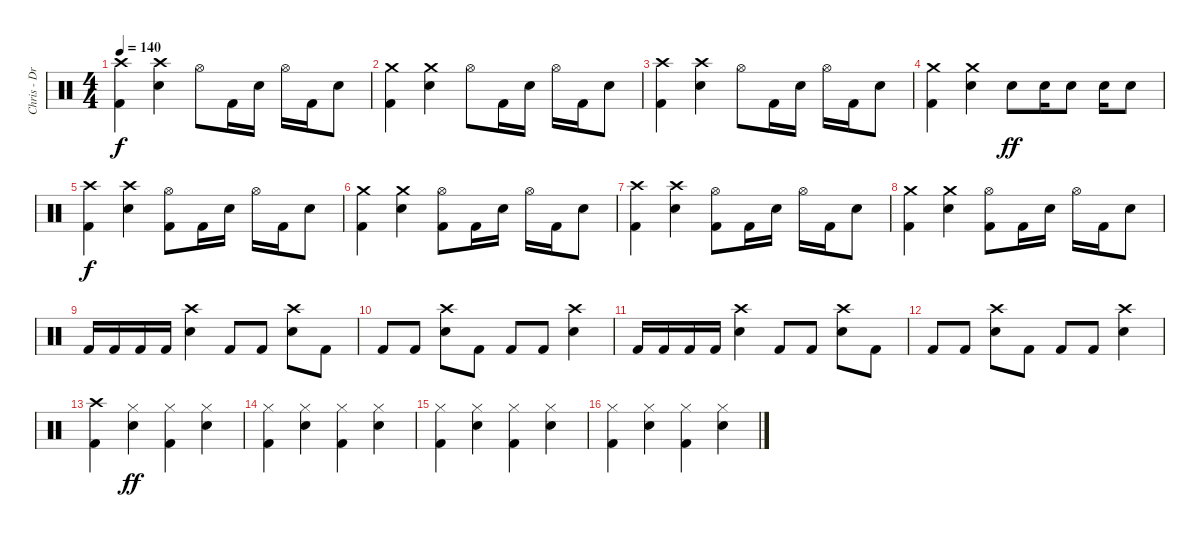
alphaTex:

\track ("Chris - Drums" "Chris - Dr") {instrument percussion}
\staff {score}
\articulation defaults
\ts (4 4)
\tempo 140
\clef neutral
\ks c
("Crash high (hit)" "Kick (hit) 2").4{dy f} ("Crash high (hit)" "Electric Snare (hit)").4 "Hi-Hat (open)".8 "Kick (hit) 2".16 "Electric Snare (hit)".16 "Hi-Hat (open)".16 "Kick (hit) 2".16 "Electric Snare (hit)".8 |
("Crash medium (hit)" "Kick (hit) 2").4 ("Crash medium (hit)" "Electric Snare (hit)").4 "Hi-Hat (open)".8 "Kick (hit) 2".16 "Electric Snare (hit)".16 "Hi-Hat (open)".16 "Kick (hit) 2".16 "Electric Snare (hit)".8 |
("Crash high (hit)" "Kick (hit) 2").4 ("Crash high (hit)" "Electric Snare (hit)").4 "Hi-Hat (open)".8 "Kick (hit) 2".16 "Electric Snare (hit)".16 "Hi-Hat (open)".16 "Kick (hit) 2".16 "Electric Snare (hit)".8 |
("Crash medium (hit)" "Kick (hit) 2").4 ("Crash medium (hit)" "Electric Snare (hit)").4 "Electric Snare (hit)".8{dy ff} "Electric Snare (hit)".16 "Electric Snare (hit)".8 "Electric Snare (hit)".16 "Electric Snare (hit)".8 |
("Crash high (hit)" "Kick (hit) 2").4{dy f} ("Crash high (hit)" "Electric Snare (hit)").4 ("Hi-Hat (open)" "Kick (hit) 2").8 "Kick (hit) 2".16 "Electric Snare (hit)".16 "Hi-Hat (open)".16 "Kick (hit) 2".16 "Electric Snare (hit)".8 |
("Crash medium (hit)" "Kick (hit) 2").4 ("Crash medium (hit)" "Electric Snare (hit)").4 ("Hi-Hat (open)" "Kick (hit) 2").8 "Kick (hit) 2".16 "Electric Snare (hit)".16 "Hi-Hat (open)".16 "Kick (hit) 2".16 "Electric Snare (hit)".8 |
("Crash high (hit)" "Kick (hit) 2").4 ("Crash high (hit)" "Electric Snare (hit)").4 ("Hi-Hat (open)" "Kick (hit) 2").8 "Kick (hit) 2".16 "Electric Snare (hit)".16 "Hi-Hat (open)".16 "Kick (hit) 2".16 "Electric Snare (hit)".8 |
("Crash medium (hit)" "Kick (hit) 2").4 ("Crash medium (hit)" "Electric Snare (hit)").4 ("Hi-Hat (open)" "Kick (hit) 2").8 "Kick (hit) 2".16 "Electric Snare (hit)".16 "Hi-Hat (open)".16 "Kick (hit) 2".16 "Electric Snare (hit)".8 |
"Kick (hit) 2".16 "Kick (hit) 2".16 "Kick (hit) 2".16 "Kick (hit) 2".16 ("Crash high (hit)" "Electric Snare (hit)").4 "Kick (hit) 2".8 "Kick (hit) 2".8 ("Crash high (hit)" "Electric Snare (hit)").8 "Kick (hit) 2".8 |
"Kick (hit) 2".8 "Kick (hit) 2".8 ("Crash high (hit)" "Electric Snare (hit)").8 "Kick (hit) 2".8 "Kick (hit) 2".8 "Kick (hit) 2".8 ("Crash high (hit)" "Electric Snare (hit)").4 |
"Kick (hit) 2".16 "Kick (hit) 2".16 "Kick (hit) 2".16 "Kick (hit) 2".16 ("Crash high (hit)" "Electric Snare (hit)").4 "Kick (hit) 2".8 "Kick (hit) 2".8 ("Crash high (hit)" "Electric Snare (hit)").8 "Kick (hit) 2".8 |
"Kick (hit) 2".8 "Kick (hit) 2".8 ("Crash high (hit)" "Electric Snare (hit)").8 "Kick (hit) 2".8 "Kick (hit) 2".8 "Kick (hit) 2".8 ("Crash high (hit)" "Electric Snare (hit)").4 |
("Crash high (hit)" "Kick (hit) 2").4 ("Hi-Hat (closed)" "Electric Snare (hit)").4{dy ff} ("Hi-Hat (closed)" "Kick (hit) 2").4 ("Hi-Hat (closed)" "Electric Snare (hit)").4 |
("Hi-Hat (closed)" "Kick (hit) 2").4 ("Hi-Hat (closed)" "Electric Snare (hit)").4 ("Hi-Hat (closed)" "Kick (hit) 2").4 ("Hi-Hat (closed)" "Electric Snare (hit)").4 |
("Hi-Hat (closed)" "Kick (hit) 2").4 ("Hi-Hat (closed)" "Electric Snare (hit)").4 ("Hi-Hat (closed)" "Kick (hit) 2").4 ("Hi-Hat (closed)" "Electric Snare (hit)").4 |
("Hi-Hat (closed)" "Kick (hit) 2").4 ("Hi-Hat (closed)" "Electric Snare (hit)").4 ("Hi-Hat (closed)" "Kick (hit) 2").4 ("Hi-Hat (closed)" "Electric Snare (hit)").4
